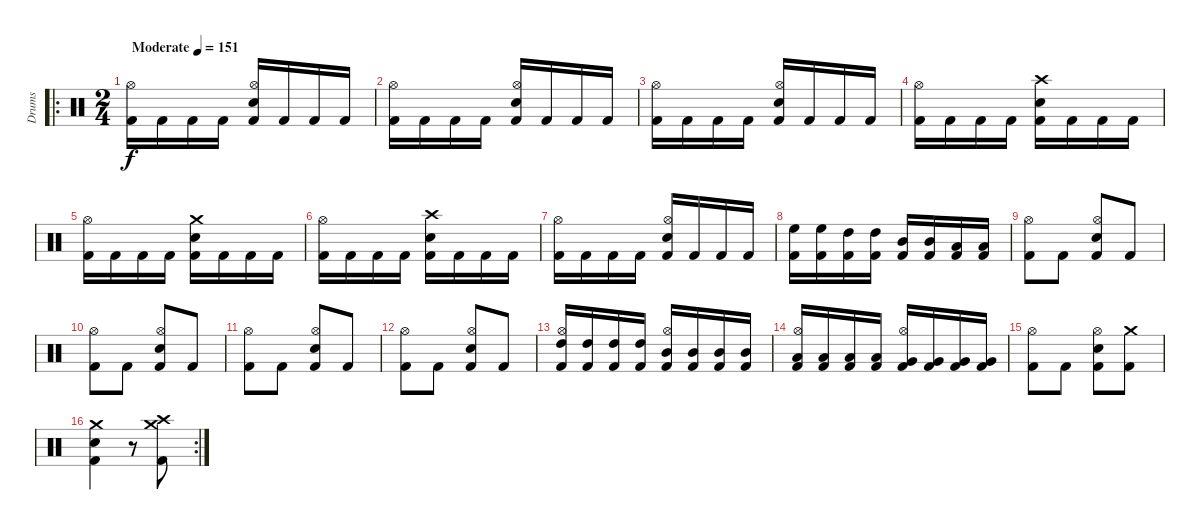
\track ("Drums" "Drums") {instrument percussion}
\staff {score}
\articulation defaults
\ro
\ts (2 4)
\tempo (151 "Moderate")
\clef neutral
\ks c
("Kick (hit) 2" "Hi-Hat (open)").16{dy f} "Kick (hit) 2".16 "Kick (hit) 2".16 "Kick (hit) 2".16 ("Kick (hit) 2" "Hi-Hat (open)" "Snare (hit) 2").16 "Kick (hit) 2".16 "Kick (hit) 2".16 "Kick (hit) 2".16 |
("Kick (hit) 2" "Hi-Hat (open)").16 "Kick (hit) 2".16 "Kick (hit) 2".16 "Kick (hit) 2".16 ("Kick (hit) 2" "Hi-Hat (open)" "Snare (hit) 2").16 "Kick (hit) 2".16 "Kick (hit) 2".16 "Kick (hit) 2".16 |
("Kick (hit) 2" "Hi-Hat (open)").16 "Kick (hit) 2".16 "Kick (hit) 2".16 "Kick (hit) 2".16 ("Kick (hit) 2" "Hi-Hat (open)" "Snare (hit) 2").16 "Kick (hit) 2".16 "Kick (hit) 2".16 "Kick (hit) 2".16 |
("Kick (hit) 2" "Hi-Hat (open)").16 "Kick (hit) 2".16 "Kick (hit) 2".16 "Kick (hit) 2".16 ("Kick (hit) 2" "Crash high (hit)" "Snare (hit) 2").16 "Kick (hit) 2".16 "Kick (hit) 2".16 "Kick (hit) 2".16 |
("Kick (hit) 2" "Hi-Hat (open)").16 "Kick (hit) 2".16 "Kick (hit) 2".16 "Kick (hit) 2".16 ("Kick (hit) 2" "Crash medium (hit)" "Snare (hit) 2").16 "Kick (hit) 2".16 "Kick (hit) 2".16 "Kick (hit) 2".16 |
("Kick (hit) 2" "Hi-Hat (open)").16 "Kick (hit) 2".16 "Kick (hit) 2".16 "Kick (hit) 2".16 ("Kick (hit) 2" "Crash high (hit)" "Snare (hit) 2").16 "Kick (hit) 2".16 "Kick (hit) 2".16 "Kick (hit) 2".16 |
("Kick (hit) 2" "Hi-Hat (open)").16 "Kick (hit) 2".16 "Kick (hit) 2".16 "Kick (hit) 2".16 ("Kick (hit) 2" "Hi-Hat (open)" "Snare (hit) 2").16 "Kick (hit) 2".16 "Kick (hit) 2".16 "Kick (hit) 2".16 |
("Kick (hit) 2" "High Floor Tom (hit)").16 ("Kick (hit) 2" "High Floor Tom (hit)").16 ("Kick (hit) 2" "High Tom (hit)").16 ("Kick (hit) 2" "High Tom (hit)").16 ("Kick (hit) 2" "Mid Tom (hit)").16 ("Kick (hit) 2" "Mid Tom (hit)").16 ("Kick (hit) 2" "Low Tom (hit)").16 ("Kick (hit) 2" "Low Tom (hit)").16 |
("Kick (hit) 2" "Hi-Hat (open)").8 "Kick (hit) 2".8 ("Kick (hit) 2" "Hi-Hat (open)" "Snare (hit) 2").8 "Kick (hit) 2".8 |
("Kick (hit) 2" "Hi-Hat (open)").8 "Kick (hit) 2".8 ("Kick (hit) 2" "Hi-Hat (open)" "Snare (hit) 2").8 "Kick (hit) 2".8 |
("Kick (hit) 2" "Hi-Hat (open)").8 "Kick (hit) 2".8 ("Kick (hit) 2" "Hi-Hat (open)" "Snare (hit) 2").8 "Kick (hit) 2".8 |
("Kick (hit) 2" "Hi-Hat (open)").8 "Kick (hit) 2".8 ("Kick (hit) 2" "Hi-Hat (open)" "Snare (hit) 2").8 "Kick (hit) 2".8 |
("High Tom (hit)" "Kick (hit) 2" "Hi-Hat (open)").16 ("High Tom (hit)" "Kick (hit) 2").16 ("High Tom (hit)" "Kick (hit) 2").16 ("High Tom (hit)" "Kick (hit) 2").16 ("Mid Tom (hit)" "Kick (hit) 2" "Hi-Hat (open)").16 ("Mid Tom (hit)" "Kick (hit) 2").16 ("Mid Tom (hit)" "Kick (hit) 2").16 ("Mid Tom (hit)" "Kick (hit) 2").16 |
("Low Tom (hit)" "Kick (hit) 2" "Hi-Hat (open)").16 ("Low Tom (hit)" "Kick (hit) 2").16 ("Low Tom (hit)" "Kick (hit) 2").16 ("Low Tom (hit)" "Kick (hit) 2").16 ("Very Low Tom (hit)" "Kick (hit) 2" "Hi-Hat (open)").16 ("Very Low Tom (hit)" "Kick (hit) 2").16 ("Very Low Tom (hit)" "Kick (hit) 2").16 ("Very Low Tom (hit)" "Kick (hit) 2").16 |
("Hi-Hat (open)" "Kick (hit) 2").8 "Kick (hit) 2".8 ("Snare (hit) 2" "Hi-Hat (open)" "Kick (hit) 2").8 ("Crash medium (hit)" "Kick (hit) 2").8 |
\rc 2
("Crash medium (hit)" "Kick (hit) 2" "Snare (hit) 2").4 r.8 ("Kick (hit) 2" "Crash high (hit)" "Crash medium (hit)").8
